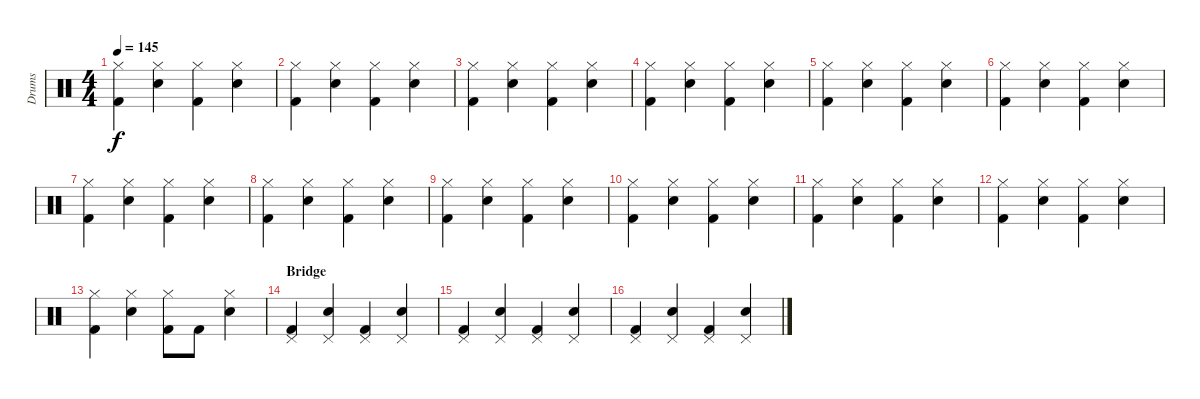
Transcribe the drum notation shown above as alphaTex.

\track ("Drums" "Drums") {instrument percussion}
\staff {score}
\articulation defaults
\ts (4 4)
\tempo 145
\clef neutral
\ks c
("Kick (hit) 2" "Hi-Hat (closed)").4{dy f} ("Electric Snare (hit)" "Hi-Hat (closed)").4 ("Kick (hit) 2" "Hi-Hat (closed)").4 ("Electric Snare (hit)" "Hi-Hat (closed)").4 |
("Kick (hit) 2" "Hi-Hat (closed)").4 ("Electric Snare (hit)" "Hi-Hat (closed)").4 ("Kick (hit) 2" "Hi-Hat (closed)").4 ("Electric Snare (hit)" "Hi-Hat (closed)").4 |
("Kick (hit) 2" "Hi-Hat (closed)").4 ("Electric Snare (hit)" "Hi-Hat (closed)").4 ("Kick (hit) 2" "Hi-Hat (closed)").4 ("Electric Snare (hit)" "Hi-Hat (closed)").4 |
("Kick (hit) 2" "Hi-Hat (closed)").4 ("Electric Snare (hit)" "Hi-Hat (closed)").4 ("Kick (hit) 2" "Hi-Hat (closed)").4 ("Electric Snare (hit)" "Hi-Hat (closed)").4 |
("Kick (hit) 2" "Hi-Hat (closed)").4 ("Electric Snare (hit)" "Hi-Hat (closed)").4 ("Kick (hit) 2" "Hi-Hat (closed)").4 ("Electric Snare (hit)" "Hi-Hat (closed)").4 |
("Kick (hit) 2" "Hi-Hat (closed)").4 ("Electric Snare (hit)" "Hi-Hat (closed)").4 ("Kick (hit) 2" "Hi-Hat (closed)").4 ("Electric Snare (hit)" "Hi-Hat (closed)").4 |
("Kick (hit) 2" "Hi-Hat (closed)").4 ("Electric Snare (hit)" "Hi-Hat (closed)").4 ("Kick (hit) 2" "Hi-Hat (closed)").4 ("Electric Snare (hit)" "Hi-Hat (closed)").4 |
("Kick (hit) 2" "Hi-Hat (closed)").4 ("Electric Snare (hit)" "Hi-Hat (closed)").4 ("Kick (hit) 2" "Hi-Hat (closed)").4 ("Electric Snare (hit)" "Hi-Hat (closed)").4 |
("Kick (hit) 2" "Hi-Hat (closed)").4 ("Electric Snare (hit)" "Hi-Hat (closed)").4 ("Kick (hit) 2" "Hi-Hat (closed)").4 ("Electric Snare (hit)" "Hi-Hat (closed)").4 |
("Kick (hit) 2" "Hi-Hat (closed)").4 ("Electric Snare (hit)" "Hi-Hat (closed)").4 ("Kick (hit) 2" "Hi-Hat (closed)").4 ("Electric Snare (hit)" "Hi-Hat (closed)").4 |
("Kick (hit) 2" "Hi-Hat (closed)").4 ("Electric Snare (hit)" "Hi-Hat (closed)").4 ("Kick (hit) 2" "Hi-Hat (closed)").4 ("Electric Snare (hit)" "Hi-Hat (closed)").4 |
("Kick (hit) 2" "Hi-Hat (closed)").4 ("Electric Snare (hit)" "Hi-Hat (closed)").4 ("Kick (hit) 2" "Hi-Hat (closed)").4 ("Electric Snare (hit)" "Hi-Hat (closed)").4 |
("Kick (hit) 2" "Hi-Hat (closed)").4 ("Electric Snare (hit)" "Hi-Hat (closed)").4 ("Kick (hit) 2" "Hi-Hat (closed)").8 "Kick (hit) 2".8 ("Electric Snare (hit)" "Hi-Hat (closed)").4 |
\section ("" "Bridge")
("Kick (hit) 2" "Pedal Hi-Hat (hit)").4 ("Electric Snare (hit)" "Pedal Hi-Hat (hit)").4 ("Kick (hit) 2" "Pedal Hi-Hat (hit)").4 ("Electric Snare (hit)" "Pedal Hi-Hat (hit)").4 |
("Kick (hit) 2" "Pedal Hi-Hat (hit)").4 ("Electric Snare (hit)" "Pedal Hi-Hat (hit)").4 ("Kick (hit) 2" "Pedal Hi-Hat (hit)").4 ("Electric Snare (hit)" "Pedal Hi-Hat (hit)").4 |
("Kick (hit) 2" "Pedal Hi-Hat (hit)").4 ("Electric Snare (hit)" "Pedal Hi-Hat (hit)").4 ("Kick (hit) 2" "Pedal Hi-Hat (hit)").4 ("Electric Snare (hit)" "Pedal Hi-Hat (hit)").4
